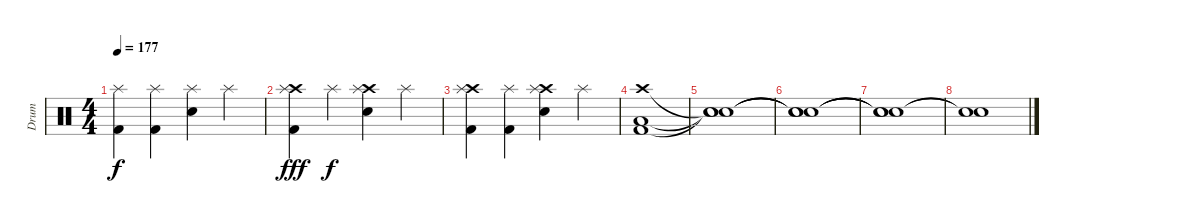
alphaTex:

\track ("Drum" "Drum") {instrument percussion}
\staff {score}
\articulation defaults
\ts (4 4)
\tempo 177
\clef neutral
\ks c
("Splash (hit)" "Kick (hit) 2").4{dy f} ("Splash (hit)" "Kick (hit) 2").4 ("Snare (hit) 2" "Splash (hit)").4 "Splash (hit)".4 |
("Crash high (hit)" "Splash (hit)" "Kick (hit) 2").4{dy fff} "Splash (hit)".4{dy f} ("Crash high (hit)" "Snare (hit) 2" "Splash (hit)").4 "Splash (hit)".4 |
("Crash high (hit)" "Splash (hit)" "Kick (hit) 2").4 ("Splash (hit)" "Kick (hit) 2").4 ("Crash high (hit)" "Snare (hit) 2" "Splash (hit)").4 "Splash (hit)".4 |
("Crash high (hit)" "Low Tom (hit)" "Kick (hit) 2").1 |
("Snare (hit)"{t} "Snare (hit)"{t} "Snare (hit)"{t}).1 |
("Snare (hit)"{t} "Snare (hit)"{t} "Snare (hit)"{t}).1 |
("Snare (hit)"{t} "Snare (hit)"{t} "Snare (hit)"{t}).1 |
("Snare (hit)"{t} "Snare (hit)"{t}).1
